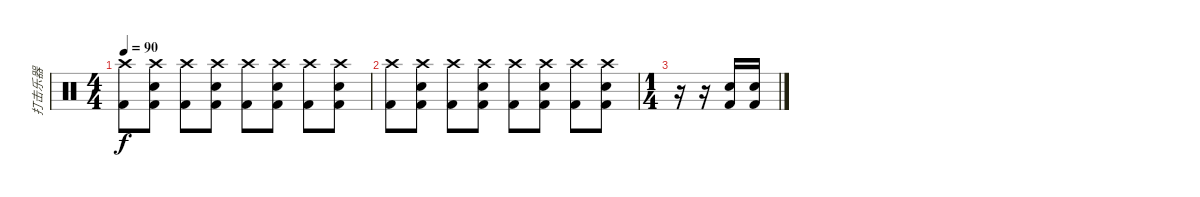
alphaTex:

\track ("打击乐器" "打击乐器") {instrument percussion}
\staff {score}
\articulation defaults
\ts (4 4)
\tempo 90
\clef neutral
\ks c
("Crash high (hit)" "Kick (hit) 2").8{dy f} ("Crash high (hit)" "Electric Snare (hit)" "Kick (hit) 2").8 ("Crash high (hit)" "Kick (hit) 2").8 ("Crash high (hit)" "Electric Snare (hit)" "Kick (hit) 2").8 ("Crash high (hit)" "Kick (hit) 2").8 ("Crash high (hit)" "Electric Snare (hit)" "Kick (hit) 2").8 ("Crash high (hit)" "Kick (hit) 2").8 ("Crash high (hit)" "Electric Snare (hit)" "Kick (hit) 2").8 |
("Crash high (hit)" "Kick (hit) 2").8 ("Crash high (hit)" "Electric Snare (hit)" "Kick (hit) 2").8 ("Crash high (hit)" "Kick (hit) 2").8 ("Crash high (hit)" "Electric Snare (hit)" "Kick (hit) 2").8 ("Crash high (hit)" "Kick (hit) 2").8 ("Crash high (hit)" "Electric Snare (hit)" "Kick (hit) 2").8 ("Crash high (hit)" "Kick (hit) 2").8 ("Crash high (hit)" "Electric Snare (hit)" "Kick (hit) 2").8 |
\ts (1 4)
r.16 r.16 ("Electric Snare (hit)" "Kick (hit) 2").16 ("Electric Snare (hit)" "Kick (hit) 2").16
